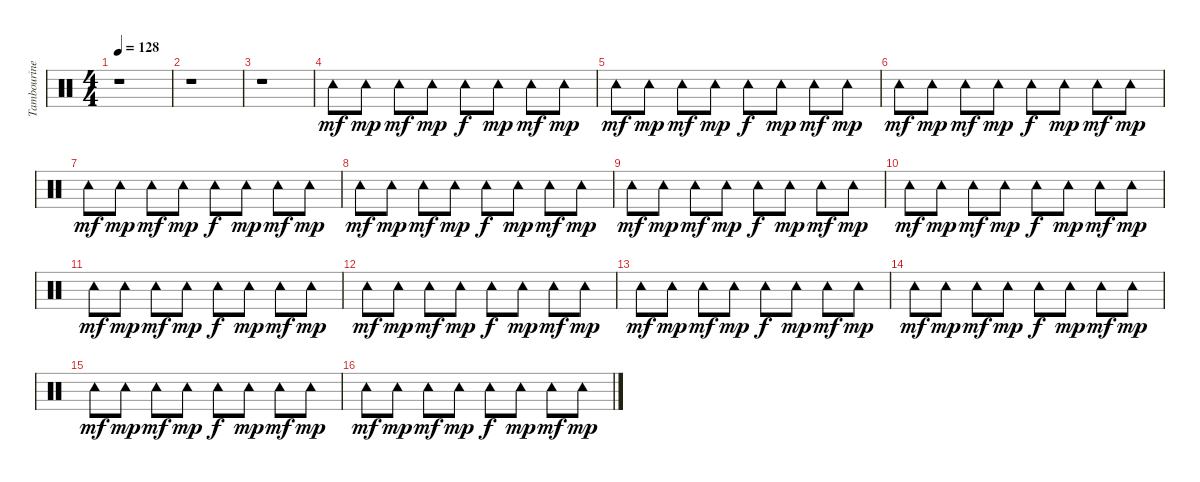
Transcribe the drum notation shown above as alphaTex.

\track ("Tambourine" "Tambourine") {instrument percussion}
\staff {score}
\articulation defaults
\ts (4 4)
\tempo 128
\clef neutral
\ks c
r.1{dy p} |
r.1 |
r.1 |
"Tambourine (hit)".8{dy mf} "Tambourine (hit)".8{dy mp} "Tambourine (hit)".8{dy mf} "Tambourine (hit)".8{dy mp} "Tambourine (hit)".8{dy f} "Tambourine (hit)".8{dy mp} "Tambourine (hit)".8{dy mf} "Tambourine (hit)".8{dy mp} |
"Tambourine (hit)".8{dy mf} "Tambourine (hit)".8{dy mp} "Tambourine (hit)".8{dy mf} "Tambourine (hit)".8{dy mp} "Tambourine (hit)".8{dy f} "Tambourine (hit)".8{dy mp} "Tambourine (hit)".8{dy mf} "Tambourine (hit)".8{dy mp} |
"Tambourine (hit)".8{dy mf} "Tambourine (hit)".8{dy mp} "Tambourine (hit)".8{dy mf} "Tambourine (hit)".8{dy mp} "Tambourine (hit)".8{dy f} "Tambourine (hit)".8{dy mp} "Tambourine (hit)".8{dy mf} "Tambourine (hit)".8{dy mp} |
"Tambourine (hit)".8{dy mf} "Tambourine (hit)".8{dy mp} "Tambourine (hit)".8{dy mf} "Tambourine (hit)".8{dy mp} "Tambourine (hit)".8{dy f} "Tambourine (hit)".8{dy mp} "Tambourine (hit)".8{dy mf} "Tambourine (hit)".8{dy mp} |
"Tambourine (hit)".8{dy mf} "Tambourine (hit)".8{dy mp} "Tambourine (hit)".8{dy mf} "Tambourine (hit)".8{dy mp} "Tambourine (hit)".8{dy f} "Tambourine (hit)".8{dy mp} "Tambourine (hit)".8{dy mf} "Tambourine (hit)".8{dy mp} |
"Tambourine (hit)".8{dy mf} "Tambourine (hit)".8{dy mp} "Tambourine (hit)".8{dy mf} "Tambourine (hit)".8{dy mp} "Tambourine (hit)".8{dy f} "Tambourine (hit)".8{dy mp} "Tambourine (hit)".8{dy mf} "Tambourine (hit)".8{dy mp} |
"Tambourine (hit)".8{dy mf} "Tambourine (hit)".8{dy mp} "Tambourine (hit)".8{dy mf} "Tambourine (hit)".8{dy mp} "Tambourine (hit)".8{dy f} "Tambourine (hit)".8{dy mp} "Tambourine (hit)".8{dy mf} "Tambourine (hit)".8{dy mp} |
"Tambourine (hit)".8{dy mf} "Tambourine (hit)".8{dy mp} "Tambourine (hit)".8{dy mf} "Tambourine (hit)".8{dy mp} "Tambourine (hit)".8{dy f} "Tambourine (hit)".8{dy mp} "Tambourine (hit)".8{dy mf} "Tambourine (hit)".8{dy mp} |
"Tambourine (hit)".8{dy mf} "Tambourine (hit)".8{dy mp} "Tambourine (hit)".8{dy mf} "Tambourine (hit)".8{dy mp} "Tambourine (hit)".8{dy f} "Tambourine (hit)".8{dy mp} "Tambourine (hit)".8{dy mf} "Tambourine (hit)".8{dy mp} |
"Tambourine (hit)".8{dy mf} "Tambourine (hit)".8{dy mp} "Tambourine (hit)".8{dy mf} "Tambourine (hit)".8{dy mp} "Tambourine (hit)".8{dy f} "Tambourine (hit)".8{dy mp} "Tambourine (hit)".8{dy mf} "Tambourine (hit)".8{dy mp} |
"Tambourine (hit)".8{dy mf} "Tambourine (hit)".8{dy mp} "Tambourine (hit)".8{dy mf} "Tambourine (hit)".8{dy mp} "Tambourine (hit)".8{dy f} "Tambourine (hit)".8{dy mp} "Tambourine (hit)".8{dy mf} "Tambourine (hit)".8{dy mp} |
"Tambourine (hit)".8{dy mf} "Tambourine (hit)".8{dy mp} "Tambourine (hit)".8{dy mf} "Tambourine (hit)".8{dy mp} "Tambourine (hit)".8{dy f} "Tambourine (hit)".8{dy mp} "Tambourine (hit)".8{dy mf} "Tambourine (hit)".8{dy mp} |
"Tambourine (hit)".8{dy mf} "Tambourine (hit)".8{dy mp} "Tambourine (hit)".8{dy mf} "Tambourine (hit)".8{dy mp} "Tambourine (hit)".8{dy f} "Tambourine (hit)".8{dy mp} "Tambourine (hit)".8{dy mf} "Tambourine (hit)".8{dy mp}
